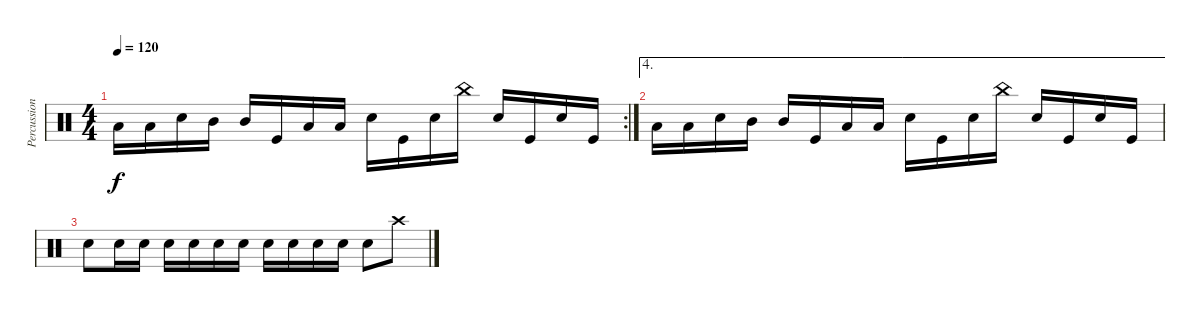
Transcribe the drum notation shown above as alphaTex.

\track ("Percussion" "Percussion") {instrument percussion}
\staff {score}
\articulation defaults
\rc 2
\ts (4 4)
\tempo 120
\clef neutral
\ks c "Low Tom (hit)".16{dy f} "Low Tom (hit)".16 "Electric Snare (hit)".16 "Mid Tom (hit)".16 "Mid Tom (hit)".16 "Kick (hit)".16 "Low Tom (hit)".16 "Low Tom (hit)".16 "Electric Snare (hit)".16 "Kick (hit)".16 "Electric Snare (hit)".16 "China (hit)".16 "Electric Snare (hit)".16 "Kick (hit)".16 "Electric Snare (hit)".16 "Kick (hit)".16
|
\ae 4 "Low Tom (hit)".16 "Low Tom (hit)".16 "Electric Snare (hit)".16 "Mid Tom (hit)".16 "Mid Tom (hit)".16 "Kick (hit)".16 "Low Tom (hit)".16 "Low Tom (hit)".16 "Electric Snare (hit)".16 "Kick (hit)".16 "Electric Snare (hit)".16 "China (hit)".16 "Electric Snare (hit)".16 "Kick (hit)".16 "Electric Snare (hit)".16 "Kick (hit)".16
|
"Electric Snare (hit)".8 "Electric Snare (hit)".16 "Electric Snare (hit)".16 "Electric Snare (hit)".16 "Electric Snare (hit)".16 "Electric Snare (hit)".16 "Electric Snare (hit)".16 "Electric Snare (hit)".16 "Electric Snare (hit)".16 "Electric Snare (hit)".16 "Electric Snare (hit)".16 "Electric Snare (hit)".8 "Crash high (hit)".8
